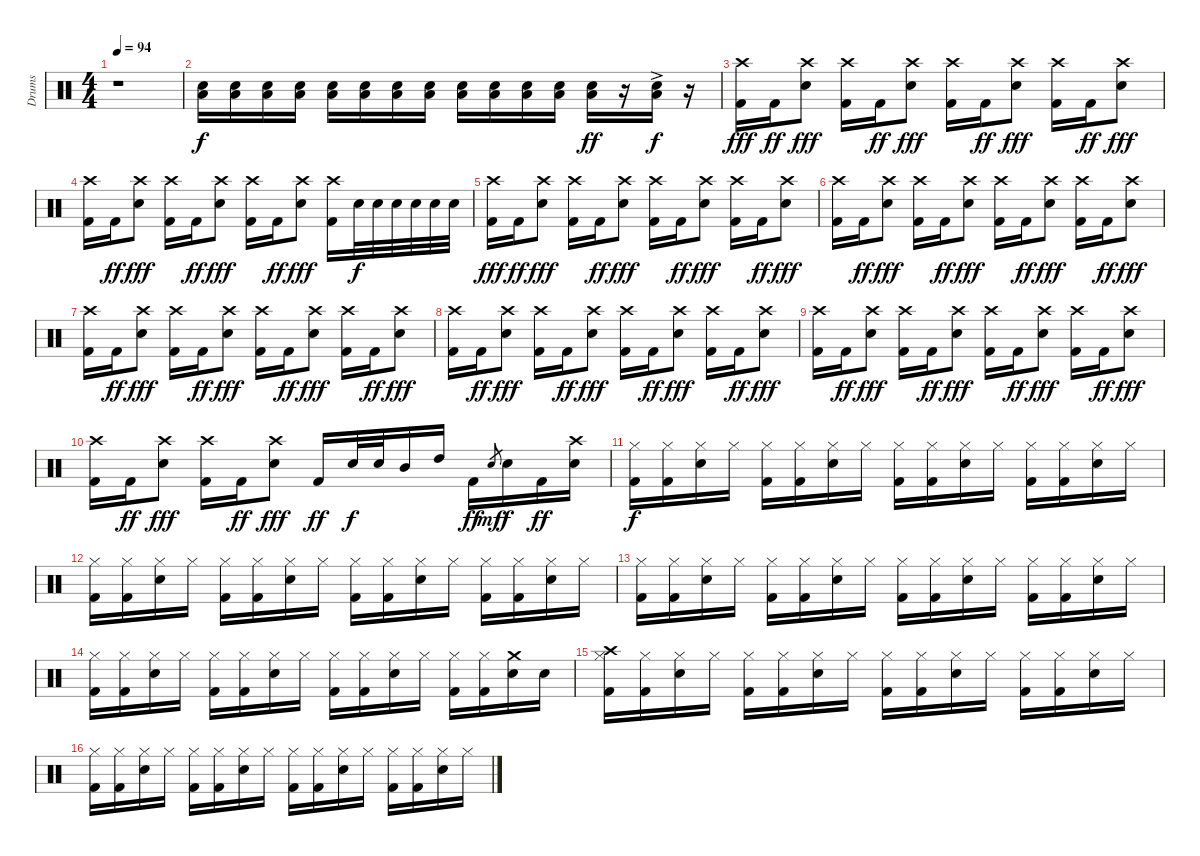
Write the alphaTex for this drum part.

\track ("Drums" "Drums") {instrument percussion}
\staff {score}
\articulation defaults
\ts (4 4)
\tempo 94
\clef neutral
\ks c
r.1{dy f} |
("Low Floor Tom (hit)" "Snare (hit) 2").16{volume 4} ("Low Floor Tom (hit)" "Snare (hit) 2").16 ("Low Floor Tom (hit)" "Snare (hit) 2").16 ("Low Floor Tom (hit)" "Snare (hit) 2").16 ("Low Floor Tom (hit)" "Snare (hit) 2").16 ("Low Floor Tom (hit)" "Snare (hit) 2").16 ("Low Floor Tom (hit)" "Snare (hit) 2").16 ("Low Floor Tom (hit)" "Snare (hit) 2").16 ("Low Floor Tom (hit)" "Snare (hit) 2").16 ("Low Floor Tom (hit)" "Snare (hit) 2").16 ("Low Floor Tom (hit)" "Snare (hit) 2").16 ("Low Floor Tom (hit)" "Snare (hit) 2").16 ("Low Floor Tom (hit)" "Snare (hit) 2").16{dy ff volume 6} r.16 ("Low Floor Tom (hit)"{ac} "Snare (hit) 2"{ac}).16{dy f} r.16 |
("Crash high (hit)" "Kick (hit) 2").16{dy fff} "Kick (hit) 2".16{dy ff} ("Crash high (hit)" "Snare (hit) 2").8{dy fff} ("Crash high (hit)" "Kick (hit) 2").16 "Kick (hit) 2".16{dy ff} ("Crash high (hit)" "Snare (hit) 2").8{dy fff} ("Crash high (hit)" "Kick (hit) 2").16 "Kick (hit) 2".16{dy ff} ("Crash high (hit)" "Snare (hit) 2").8{dy fff} ("Crash high (hit)" "Kick (hit) 2").16 "Kick (hit) 2".16{dy ff} ("Crash high (hit)" "Snare (hit) 2").8{dy fff} |
("Crash high (hit)" "Kick (hit) 2").16 "Kick (hit) 2".16{dy ff} ("Crash high (hit)" "Snare (hit) 2").8{dy fff} ("Crash high (hit)" "Kick (hit) 2").16 "Kick (hit) 2".16{dy ff} ("Crash high (hit)" "Snare (hit) 2").8{dy fff} ("Crash high (hit)" "Kick (hit) 2").16 "Kick (hit) 2".16{dy ff} ("Crash high (hit)" "Snare (hit) 2").8{dy fff} ("Crash high (hit)" "Kick (hit) 2").16 "Snare (hit) 2".32{dy f} "Snare (hit) 2".32 "Snare (hit) 2".32 "Snare (hit) 2".32 "Snare (hit) 2".32 "Snare (hit) 2".32 |
("Crash high (hit)" "Kick (hit) 2").16{dy fff} "Kick (hit) 2".16{dy ff} ("Crash high (hit)" "Snare (hit) 2").8{dy fff} ("Crash high (hit)" "Kick (hit) 2").16 "Kick (hit) 2".16{dy ff} ("Crash high (hit)" "Snare (hit) 2").8{dy fff} ("Crash high (hit)" "Kick (hit) 2").16 "Kick (hit) 2".16{dy ff} ("Crash high (hit)" "Snare (hit) 2").8{dy fff} ("Crash high (hit)" "Kick (hit) 2").16 "Kick (hit) 2".16{dy ff} ("Crash high (hit)" "Snare (hit) 2").8{dy fff} |
("Crash high (hit)" "Kick (hit) 2").16 "Kick (hit) 2".16{dy ff} ("Crash high (hit)" "Snare (hit) 2").8{dy fff} ("Crash high (hit)" "Kick (hit) 2").16 "Kick (hit) 2".16{dy ff} ("Crash high (hit)" "Snare (hit) 2").8{dy fff} ("Crash high (hit)" "Kick (hit) 2").16 "Kick (hit) 2".16{dy ff} ("Crash high (hit)" "Snare (hit) 2").8{dy fff} ("Crash high (hit)" "Kick (hit) 2").16 "Kick (hit) 2".16{dy ff} ("Crash high (hit)" "Snare (hit) 2").8{dy fff} |
("Crash high (hit)" "Kick (hit) 2").16 "Kick (hit) 2".16{dy ff} ("Crash high (hit)" "Snare (hit) 2").8{dy fff} ("Crash high (hit)" "Kick (hit) 2").16 "Kick (hit) 2".16{dy ff} ("Crash high (hit)" "Snare (hit) 2").8{dy fff} ("Crash high (hit)" "Kick (hit) 2").16 "Kick (hit) 2".16{dy ff} ("Crash high (hit)" "Snare (hit) 2").8{dy fff} ("Crash high (hit)" "Kick (hit) 2").16 "Kick (hit) 2".16{dy ff} ("Crash high (hit)" "Snare (hit) 2").8{dy fff} |
("Crash high (hit)" "Kick (hit) 2").16 "Kick (hit) 2".16{dy ff} ("Crash high (hit)" "Snare (hit) 2").8{dy fff} ("Crash high (hit)" "Kick (hit) 2").16 "Kick (hit) 2".16{dy ff} ("Crash high (hit)" "Snare (hit) 2").8{dy fff} ("Crash high (hit)" "Kick (hit) 2").16 "Kick (hit) 2".16{dy ff} ("Crash high (hit)" "Snare (hit) 2").8{dy fff} ("Crash high (hit)" "Kick (hit) 2").16 "Kick (hit) 2".16{dy ff} ("Crash high (hit)" "Snare (hit) 2").8{dy fff} |
("Crash high (hit)" "Kick (hit) 2").16 "Kick (hit) 2".16{dy ff} ("Crash high (hit)" "Snare (hit) 2").8{dy fff} ("Crash high (hit)" "Kick (hit) 2").16 "Kick (hit) 2".16{dy ff} ("Crash high (hit)" "Snare (hit) 2").8{dy fff} ("Crash high (hit)" "Kick (hit) 2").16 "Kick (hit) 2".16{dy ff} ("Crash high (hit)" "Snare (hit) 2").8{dy fff} ("Crash high (hit)" "Kick (hit) 2").16 "Kick (hit) 2".16{dy ff} ("Crash high (hit)" "Snare (hit) 2").8{dy fff} |
("Crash high (hit)" "Kick (hit) 2").16 "Kick (hit) 2".16{dy ff} ("Crash high (hit)" "Snare (hit) 2").8{dy fff} ("Crash high (hit)" "Kick (hit) 2").16 "Kick (hit) 2".16{dy ff} ("Crash high (hit)" "Snare (hit) 2").8{dy fff} "Kick (hit) 2".16{dy ff} "Snare (hit) 2".32{dy f} "Snare (hit) 2".32 "Mid Tom (hit)".16 "High Tom (hit)".16 "Kick (hit) 2".16{dy ff} "Snare (hit)".8{gr dy mf} "Snare (hit) 2".16{dy f} "Kick (hit) 2".16{dy ff} ("Crash high (hit)" "Snare (hit) 2").16 |
("Hi-Hat (closed)" "Kick (hit) 2").16{dy f} ("Hi-Hat (closed)" "Kick (hit) 2").16 ("Hi-Hat (closed)" "Snare (hit) 2").16 "Hi-Hat (closed)".16 ("Hi-Hat (closed)" "Kick (hit) 2").16 ("Hi-Hat (closed)" "Kick (hit) 2").16 ("Hi-Hat (closed)" "Snare (hit) 2").16 "Hi-Hat (closed)".16 ("Hi-Hat (closed)" "Kick (hit) 2").16 ("Hi-Hat (closed)" "Kick (hit) 2").16 ("Hi-Hat (closed)" "Snare (hit) 2").16 "Hi-Hat (closed)".16 ("Hi-Hat (closed)" "Kick (hit) 2").16 ("Hi-Hat (closed)" "Kick (hit) 2").16 ("Hi-Hat (closed)" "Snare (hit) 2").16 "Hi-Hat (closed)".16 |
("Hi-Hat (closed)" "Kick (hit) 2").16 ("Hi-Hat (closed)" "Kick (hit) 2").16 ("Hi-Hat (closed)" "Snare (hit) 2").16 "Hi-Hat (closed)".16 ("Hi-Hat (closed)" "Kick (hit) 2").16 ("Hi-Hat (closed)" "Kick (hit) 2").16 ("Hi-Hat (closed)" "Snare (hit) 2").16 "Hi-Hat (closed)".16 ("Hi-Hat (closed)" "Kick (hit) 2").16 ("Hi-Hat (closed)" "Kick (hit) 2").16 ("Hi-Hat (closed)" "Snare (hit) 2").16 "Hi-Hat (closed)".16 ("Hi-Hat (closed)" "Kick (hit) 2").16 ("Hi-Hat (closed)" "Kick (hit) 2").16 ("Hi-Hat (closed)" "Snare (hit) 2").16 "Hi-Hat (closed)".16 |
("Hi-Hat (closed)" "Kick (hit) 2").16 ("Hi-Hat (closed)" "Kick (hit) 2").16 ("Hi-Hat (closed)" "Snare (hit) 2").16 "Hi-Hat (closed)".16 ("Hi-Hat (closed)" "Kick (hit) 2").16 ("Hi-Hat (closed)" "Kick (hit) 2").16 ("Hi-Hat (closed)" "Snare (hit) 2").16 "Hi-Hat (closed)".16 ("Hi-Hat (closed)" "Kick (hit) 2").16 ("Hi-Hat (closed)" "Kick (hit) 2").16 ("Hi-Hat (closed)" "Snare (hit) 2").16 "Hi-Hat (closed)".16 ("Hi-Hat (closed)" "Kick (hit) 2").16 ("Hi-Hat (closed)" "Kick (hit) 2").16 ("Hi-Hat (closed)" "Snare (hit) 2").16 "Hi-Hat (closed)".16 |
("Hi-Hat (closed)" "Kick (hit) 2").16 ("Hi-Hat (closed)" "Kick (hit) 2").16 ("Hi-Hat (closed)" "Snare (hit) 2").16 "Hi-Hat (closed)".16 ("Hi-Hat (closed)" "Kick (hit) 2").16 ("Hi-Hat (closed)" "Kick (hit) 2").16 ("Hi-Hat (closed)" "Snare (hit) 2").16 "Hi-Hat (closed)".16 ("Hi-Hat (closed)" "Kick (hit) 2").16 ("Hi-Hat (closed)" "Kick (hit) 2").16 ("Hi-Hat (closed)" "Snare (hit) 2").16 "Hi-Hat (closed)".16 ("Hi-Hat (closed)" "Kick (hit) 2").16 ("Hi-Hat (closed)" "Kick (hit) 2").16 ("Crash medium (hit)" "Snare (hit) 2").16 "Snare (hit)".16 |
("Crash high (hit)" "Hi-Hat (closed)" "Kick (hit) 2").16 ("Hi-Hat (closed)" "Kick (hit) 2").16 ("Hi-Hat (closed)" "Snare (hit) 2").16 "Hi-Hat (closed)".16 ("Hi-Hat (closed)" "Kick (hit) 2").16 ("Hi-Hat (closed)" "Kick (hit) 2").16 ("Hi-Hat (closed)" "Snare (hit) 2").16 "Hi-Hat (closed)".16 ("Hi-Hat (closed)" "Kick (hit) 2").16 ("Hi-Hat (closed)" "Kick (hit) 2").16 ("Hi-Hat (closed)" "Snare (hit) 2").16 "Hi-Hat (closed)".16 ("Hi-Hat (closed)" "Kick (hit) 2").16 ("Hi-Hat (closed)" "Kick (hit) 2").16 ("Hi-Hat (closed)" "Snare (hit) 2").16 "Hi-Hat (closed)".16 |
("Hi-Hat (closed)" "Kick (hit) 2").16 ("Hi-Hat (closed)" "Kick (hit) 2").16 ("Hi-Hat (closed)" "Snare (hit) 2").16 "Hi-Hat (closed)".16 ("Hi-Hat (closed)" "Kick (hit) 2").16 ("Hi-Hat (closed)" "Kick (hit) 2").16 ("Hi-Hat (closed)" "Snare (hit) 2").16 "Hi-Hat (closed)".16 ("Hi-Hat (closed)" "Kick (hit) 2").16 ("Hi-Hat (closed)" "Kick (hit) 2").16 ("Hi-Hat (closed)" "Snare (hit) 2").16 "Hi-Hat (closed)".16 ("Hi-Hat (closed)" "Kick (hit) 2").16 ("Hi-Hat (closed)" "Kick (hit) 2").16 ("Hi-Hat (closed)" "Snare (hit) 2").16 "Hi-Hat (closed)".16
